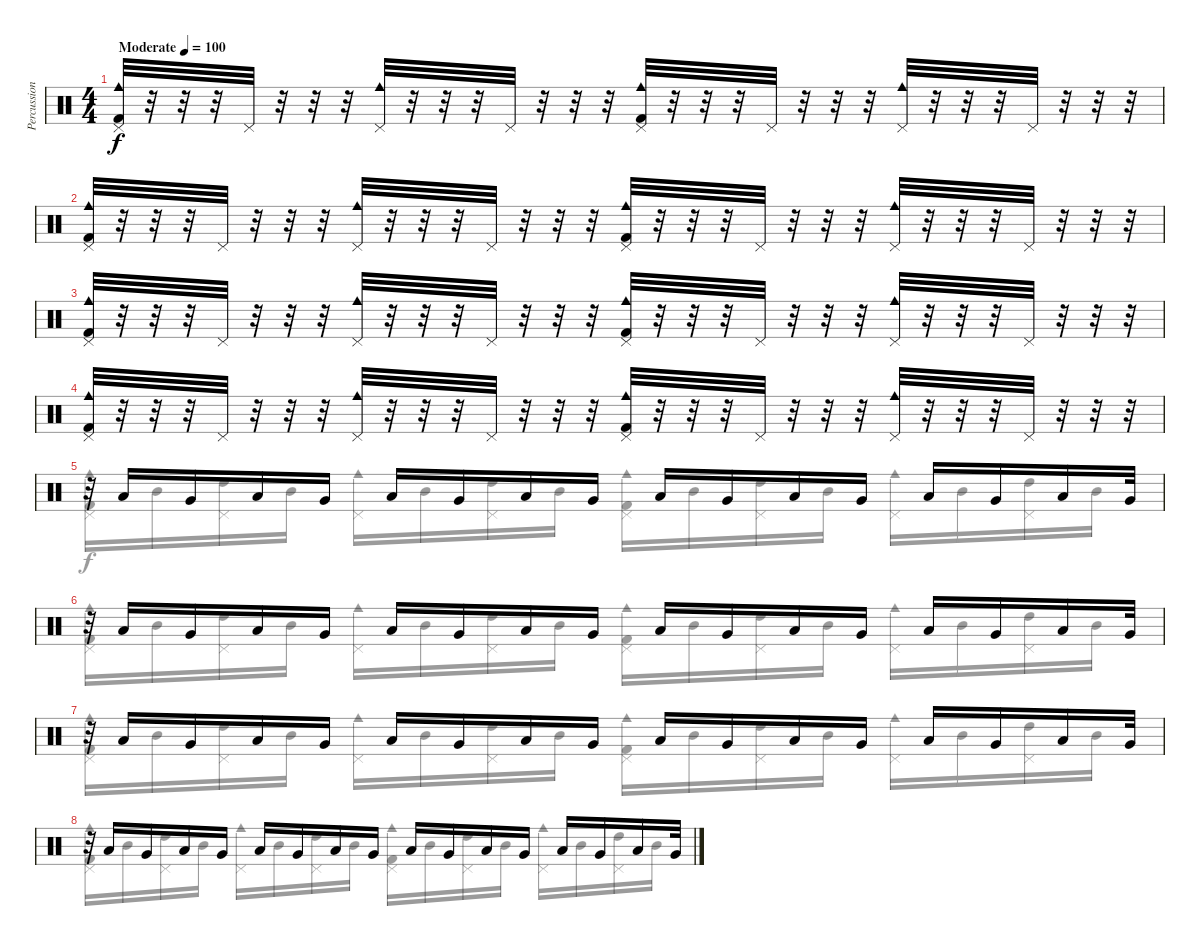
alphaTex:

\track ("Percussion" "Percussion") {instrument percussion}
\staff {score}
\articulation defaults
\voice
\ts (4 4)
\tempo (100 "Moderate")
\clef neutral
\ks c
("Cowbell medium (hit)" "Pedal Hi-Hat (hit)" "Kick (hit) 2").32{dy f} r.32 r.32 r.32 "Pedal Hi-Hat (hit)".32 r.32 r.32 r.32 ("Cowbell medium (hit)" "Pedal Hi-Hat (hit)").32 r.32 r.32 r.32 "Pedal Hi-Hat (hit)".32 r.32 r.32 r.32 ("Cowbell medium (hit)" "Pedal Hi-Hat (hit)" "Kick (hit) 2").32 r.32 r.32 r.32 "Pedal Hi-Hat (hit)".32 r.32 r.32 r.32 ("Cowbell medium (hit)" "Pedal Hi-Hat (hit)").32 r.32 r.32 r.32 "Pedal Hi-Hat (hit)".32 r.32 r.32 r.32 |
("Cowbell medium (hit)" "Pedal Hi-Hat (hit)" "Kick (hit) 2").32 r.32 r.32 r.32 "Pedal Hi-Hat (hit)".32 r.32 r.32 r.32 ("Cowbell medium (hit)" "Pedal Hi-Hat (hit)").32 r.32 r.32 r.32 "Pedal Hi-Hat (hit)".32 r.32 r.32 r.32 ("Cowbell medium (hit)" "Pedal Hi-Hat (hit)" "Kick (hit) 2").32 r.32 r.32 r.32 "Pedal Hi-Hat (hit)".32 r.32 r.32 r.32 ("Cowbell medium (hit)" "Pedal Hi-Hat (hit)").32 r.32 r.32 r.32 "Pedal Hi-Hat (hit)".32 r.32 r.32 r.32 |
("Cowbell medium (hit)" "Pedal Hi-Hat (hit)" "Kick (hit) 2").32 r.32 r.32 r.32 "Pedal Hi-Hat (hit)".32 r.32 r.32 r.32 ("Cowbell medium (hit)" "Pedal Hi-Hat (hit)").32 r.32 r.32 r.32 "Pedal Hi-Hat (hit)".32 r.32 r.32 r.32 ("Cowbell medium (hit)" "Pedal Hi-Hat (hit)" "Kick (hit) 2").32 r.32 r.32 r.32 "Pedal Hi-Hat (hit)".32 r.32 r.32 r.32 ("Cowbell medium (hit)" "Pedal Hi-Hat (hit)").32 r.32 r.32 r.32 "Pedal Hi-Hat (hit)".32 r.32 r.32 r.32 |
("Cowbell medium (hit)" "Pedal Hi-Hat (hit)" "Kick (hit) 2").32 r.32 r.32 r.32 "Pedal Hi-Hat (hit)".32 r.32 r.32 r.32 ("Cowbell medium (hit)" "Pedal Hi-Hat (hit)").32 r.32 r.32 r.32 "Pedal Hi-Hat (hit)".32 r.32 r.32 r.32 ("Cowbell medium (hit)" "Pedal Hi-Hat (hit)" "Kick (hit) 2").32 r.32 r.32 r.32 "Pedal Hi-Hat (hit)".32 r.32 r.32 r.32 ("Cowbell medium (hit)" "Pedal Hi-Hat (hit)").32 r.32 r.32 r.32 "Pedal Hi-Hat (hit)".32 r.32 r.32 r.32 |
r.32 "Low Tom (hit)".16 "Very Low Tom (hit)".16 "Low Tom (hit)".16 "Very Low Tom (hit)".16 "Low Tom (hit)".16 "Very Low Tom (hit)".16 "Low Tom (hit)".16 "Very Low Tom (hit)".16 "Low Tom (hit)".16 "Very Low Tom (hit)".16 "Low Tom (hit)".16 "Very Low Tom (hit)".16 "Low Tom (hit)".16 "Very Low Tom (hit)".16 "Low Tom (hit)".16 "Very Low Tom (hit)".32 |
r.32 "Low Tom (hit)".16 "Very Low Tom (hit)".16 "Low Tom (hit)".16 "Very Low Tom (hit)".16 "Low Tom (hit)".16 "Very Low Tom (hit)".16 "Low Tom (hit)".16 "Very Low Tom (hit)".16 "Low Tom (hit)".16 "Very Low Tom (hit)".16 "Low Tom (hit)".16 "Very Low Tom (hit)".16 "Low Tom (hit)".16 "Very Low Tom (hit)".16 "Low Tom (hit)".16 "Very Low Tom (hit)".32 |
r.32 "Low Tom (hit)".16 "Very Low Tom (hit)".16 "Low Tom (hit)".16 "Very Low Tom (hit)".16 "Low Tom (hit)".16 "Very Low Tom (hit)".16 "Low Tom (hit)".16 "Very Low Tom (hit)".16 "Low Tom (hit)".16 "Very Low Tom (hit)".16 "Low Tom (hit)".16 "Very Low Tom (hit)".16 "Low Tom (hit)".16 "Very Low Tom (hit)".16 "Low Tom (hit)".16 "Very Low Tom (hit)".32 |
r.32 "Low Tom (hit)".16 "Very Low Tom (hit)".16 "Low Tom (hit)".16 "Very Low Tom (hit)".16 "Low Tom (hit)".16 "Very Low Tom (hit)".16 "Low Tom (hit)".16 "Very Low Tom (hit)".16 "Low Tom (hit)".16 "Very Low Tom (hit)".16 "Low Tom (hit)".16 "Very Low Tom (hit)".16 "Low Tom (hit)".16 "Very Low Tom (hit)".16 "Low Tom (hit)".16 "Very Low Tom (hit)".32
\voice
\clef neutral
\ottava regular
\simile none
\ks c
|
|
|
|
("Cowbell medium (hit)" "Pedal Hi-Hat (hit)" "Kick (hit) 2").16 "Mid Tom (hit)".16 ("High Tom (hit)" "Pedal Hi-Hat (hit)").16 "Mid Tom (hit)".16 ("Cowbell medium (hit)" "Pedal Hi-Hat (hit)").16 "Mid Tom (hit)".16 ("High Tom (hit)" "Pedal Hi-Hat (hit)").16 "Mid Tom (hit)".16 ("Cowbell medium (hit)" "Pedal Hi-Hat (hit)" "Kick (hit) 2").16 "Mid Tom (hit)".16 ("High Tom (hit)" "Pedal Hi-Hat (hit)").16 "Mid Tom (hit)".16 ("Cowbell medium (hit)" "Pedal Hi-Hat (hit)").16 "Mid Tom (hit)".16 ("High Tom (hit)" "Pedal Hi-Hat (hit)").16 "Mid Tom (hit)".16 |
("Cowbell medium (hit)" "Pedal Hi-Hat (hit)" "Kick (hit) 2").16 "Mid Tom (hit)".16 ("High Tom (hit)" "Pedal Hi-Hat (hit)").16 "Mid Tom (hit)".16 ("Cowbell medium (hit)" "Pedal Hi-Hat (hit)").16 "Mid Tom (hit)".16 ("High Tom (hit)" "Pedal Hi-Hat (hit)").16 "Mid Tom (hit)".16 ("Cowbell medium (hit)" "Pedal Hi-Hat (hit)" "Kick (hit) 2").16 "Mid Tom (hit)".16 ("High Tom (hit)" "Pedal Hi-Hat (hit)").16 "Mid Tom (hit)".16 ("Cowbell medium (hit)" "Pedal Hi-Hat (hit)").16 "Mid Tom (hit)".16 ("High Tom (hit)" "Pedal Hi-Hat (hit)").16 "Mid Tom (hit)".16 |
("Cowbell medium (hit)" "Pedal Hi-Hat (hit)" "Kick (hit) 2").16 "Mid Tom (hit)".16 ("High Tom (hit)" "Pedal Hi-Hat (hit)").16 "Mid Tom (hit)".16 ("Cowbell medium (hit)" "Pedal Hi-Hat (hit)").16 "Mid Tom (hit)".16 ("High Tom (hit)" "Pedal Hi-Hat (hit)").16 "Mid Tom (hit)".16 ("Cowbell medium (hit)" "Pedal Hi-Hat (hit)" "Kick (hit) 2").16 "Mid Tom (hit)".16 ("High Tom (hit)" "Pedal Hi-Hat (hit)").16 "Mid Tom (hit)".16 ("Cowbell medium (hit)" "Pedal Hi-Hat (hit)").16 "Mid Tom (hit)".16 ("High Tom (hit)" "Pedal Hi-Hat (hit)").16 "Mid Tom (hit)".16 |
("Cowbell medium (hit)" "Pedal Hi-Hat (hit)" "Kick (hit) 2").16 "Mid Tom (hit)".16 ("High Tom (hit)" "Pedal Hi-Hat (hit)").16 "Mid Tom (hit)".16 ("Cowbell medium (hit)" "Pedal Hi-Hat (hit)").16 "Mid Tom (hit)".16 ("High Tom (hit)" "Pedal Hi-Hat (hit)").16 "Mid Tom (hit)".16 ("Cowbell medium (hit)" "Pedal Hi-Hat (hit)" "Kick (hit) 2").16 "Mid Tom (hit)".16 ("High Tom (hit)" "Pedal Hi-Hat (hit)").16 "Mid Tom (hit)".16 ("Cowbell medium (hit)" "Pedal Hi-Hat (hit)").16 "Mid Tom (hit)".16 ("High Tom (hit)" "Pedal Hi-Hat (hit)").16 "Mid Tom (hit)".16
